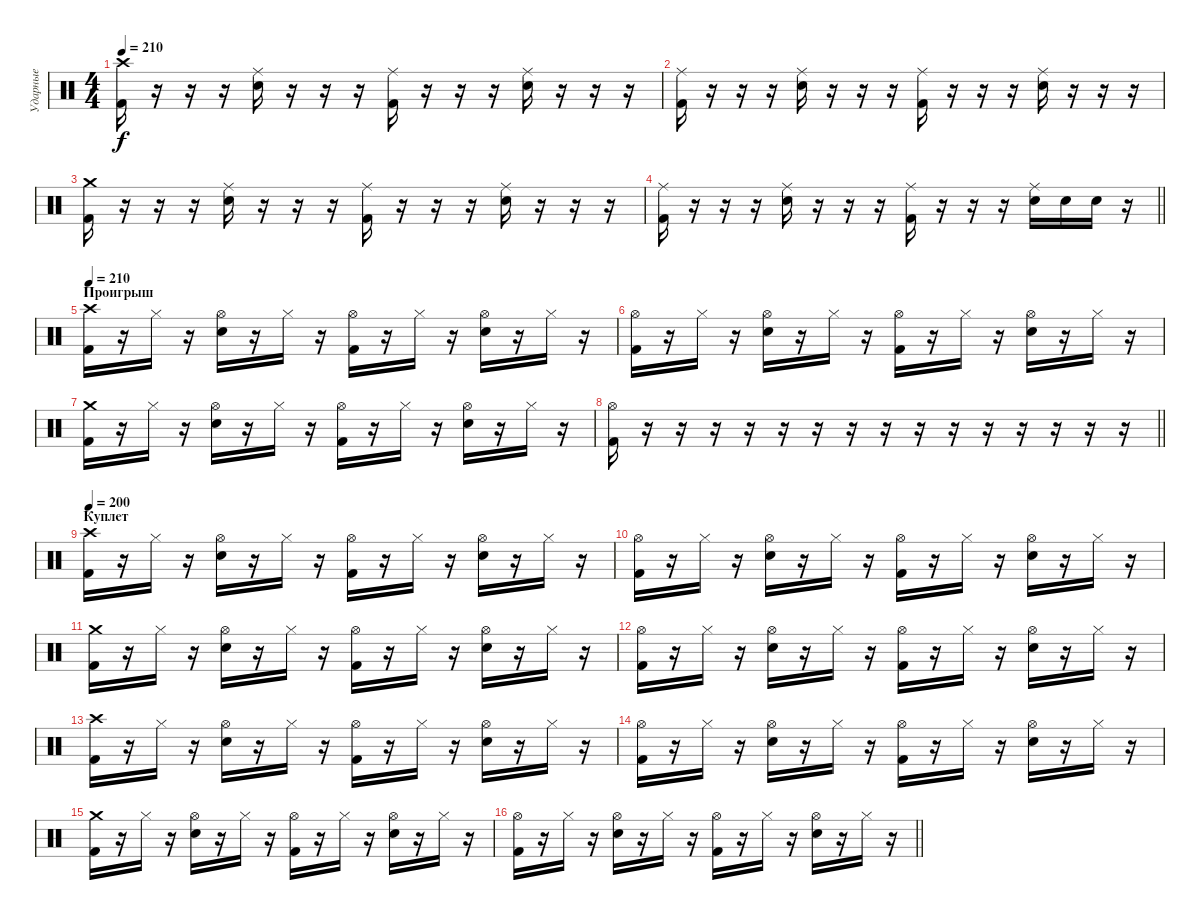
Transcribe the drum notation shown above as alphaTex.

\track ("Ударные" "Ударные") {instrument percussion}
\staff {score}
\articulation defaults
\ts (4 4)
\tempo 210
\clef neutral
\ks c
("Kick (hit) 2" "Crash high (hit)").16{dy f} r.16 r.16 r.16 ("Electric Snare (hit)" "Ride (middle)").16 r.16 r.16 r.16 ("Kick (hit) 2" "Ride (middle)").16 r.16 r.16 r.16 ("Electric Snare (hit)" "Ride (middle)").16 r.16 r.16 r.16 |
("Kick (hit) 2" "Ride (middle)").16 r.16 r.16 r.16 ("Electric Snare (hit)" "Ride (middle)").16 r.16 r.16 r.16 ("Kick (hit) 2" "Ride (middle)").16 r.16 r.16 r.16 ("Electric Snare (hit)" "Ride (middle)").16 r.16 r.16 r.16 |
("Kick (hit) 2" "Crash medium (hit)").16 r.16 r.16 r.16 ("Electric Snare (hit)" "Ride (middle)").16 r.16 r.16 r.16 ("Kick (hit) 2" "Ride (middle)").16 r.16 r.16 r.16 ("Electric Snare (hit)" "Ride (middle)").16 r.16 r.16 r.16 |
\barLineRight lightlight
("Kick (hit) 2" "Ride (middle)").16 r.16 r.16 r.16 ("Electric Snare (hit)" "Ride (middle)").16 r.16 r.16 r.16 ("Kick (hit) 2" "Ride (middle)").16 r.16 r.16 r.16 ("Electric Snare (hit)" "Ride (middle)").16 "Electric Snare (hit)".16 "Electric Snare (hit)".16 r.16 |
\section ("" "Проигрыш")
\tempo 210
("Kick (hit) 2" "Crash high (hit)").16 r.16 "Hi-Hat (closed)".16 r.16 ("Electric Snare (hit)" "Hi-Hat (open)").16 r.16 "Hi-Hat (closed)".16 r.16 ("Kick (hit) 2" "Hi-Hat (open)").16 r.16 "Hi-Hat (closed)".16 r.16 ("Electric Snare (hit)" "Hi-Hat (open)").16 r.16 "Hi-Hat (closed)".16 r.16 |
("Kick (hit) 2" "Hi-Hat (open)").16 r.16 "Hi-Hat (closed)".16 r.16 ("Electric Snare (hit)" "Hi-Hat (open)").16 r.16 "Hi-Hat (closed)".16 r.16 ("Kick (hit) 2" "Hi-Hat (open)").16 r.16 "Hi-Hat (closed)".16 r.16 ("Electric Snare (hit)" "Hi-Hat (open)").16 r.16 "Hi-Hat (closed)".16 r.16 |
("Kick (hit) 2" "Crash medium (hit)").16 r.16 "Hi-Hat (closed)".16 r.16 ("Electric Snare (hit)" "Hi-Hat (open)").16 r.16 "Hi-Hat (closed)".16 r.16 ("Kick (hit) 2" "Hi-Hat (open)").16 r.16 "Hi-Hat (closed)".16 r.16 ("Electric Snare (hit)" "Hi-Hat (open)").16 r.16 "Hi-Hat (closed)".16 r.16 |
\barLineRight lightlight
("Kick (hit) 2" "Hi-Hat (open)").16 r.16 r.16 r.16 r.16 r.16 r.16 r.16 r.16 r.16 r.16 r.16 r.16 r.16 r.16 r.16 |
\section ("" "Куплет")
\tempo 200
("Kick (hit) 2" "Crash high (hit)").16 r.16 "Hi-Hat (closed)".16 r.16 ("Electric Snare (hit)" "Hi-Hat (open)").16 r.16 "Hi-Hat (closed)".16 r.16 ("Kick (hit) 2" "Hi-Hat (open)").16 r.16 "Hi-Hat (closed)".16 r.16 ("Electric Snare (hit)" "Hi-Hat (open)").16 r.16 "Hi-Hat (closed)".16 r.16 |
("Kick (hit) 2" "Hi-Hat (open)").16 r.16 "Hi-Hat (closed)".16 r.16 ("Electric Snare (hit)" "Hi-Hat (open)").16 r.16 "Hi-Hat (closed)".16 r.16 ("Kick (hit) 2" "Hi-Hat (open)").16 r.16 "Hi-Hat (closed)".16 r.16 ("Electric Snare (hit)" "Hi-Hat (open)").16 r.16 "Hi-Hat (closed)".16 r.16 |
("Kick (hit) 2" "Crash medium (hit)").16 r.16 "Hi-Hat (closed)".16 r.16 ("Electric Snare (hit)" "Hi-Hat (open)").16 r.16 "Hi-Hat (closed)".16 r.16 ("Kick (hit) 2" "Hi-Hat (open)").16 r.16 "Hi-Hat (closed)".16 r.16 ("Electric Snare (hit)" "Hi-Hat (open)").16 r.16 "Hi-Hat (closed)".16 r.16 |
("Kick (hit) 2" "Hi-Hat (open)").16 r.16 "Hi-Hat (closed)".16 r.16 ("Electric Snare (hit)" "Hi-Hat (open)").16 r.16 "Hi-Hat (closed)".16 r.16 ("Kick (hit) 2" "Hi-Hat (open)").16 r.16 "Hi-Hat (closed)".16 r.16 ("Electric Snare (hit)" "Hi-Hat (open)").16 r.16 "Hi-Hat (closed)".16 r.16 |
("Kick (hit) 2" "Crash high (hit)").16 r.16 "Hi-Hat (closed)".16 r.16 ("Electric Snare (hit)" "Hi-Hat (open)").16 r.16 "Hi-Hat (closed)".16 r.16 ("Kick (hit) 2" "Hi-Hat (open)").16 r.16 "Hi-Hat (closed)".16 r.16 ("Electric Snare (hit)" "Hi-Hat (open)").16 r.16 "Hi-Hat (closed)".16 r.16 |
("Kick (hit) 2" "Hi-Hat (open)").16 r.16 "Hi-Hat (closed)".16 r.16 ("Electric Snare (hit)" "Hi-Hat (open)").16 r.16 "Hi-Hat (closed)".16 r.16 ("Kick (hit) 2" "Hi-Hat (open)").16 r.16 "Hi-Hat (closed)".16 r.16 ("Electric Snare (hit)" "Hi-Hat (open)").16 r.16 "Hi-Hat (closed)".16 r.16 |
("Kick (hit) 2" "Crash medium (hit)").16 r.16 "Hi-Hat (closed)".16 r.16 ("Electric Snare (hit)" "Hi-Hat (open)").16 r.16 "Hi-Hat (closed)".16 r.16 ("Kick (hit) 2" "Hi-Hat (open)").16 r.16 "Hi-Hat (closed)".16 r.16 ("Electric Snare (hit)" "Hi-Hat (open)").16 r.16 "Hi-Hat (closed)".16 r.16 |
\barLineRight lightlight
("Kick (hit) 2" "Hi-Hat (open)").16 r.16 "Hi-Hat (closed)".16 r.16 ("Electric Snare (hit)" "Hi-Hat (open)").16 r.16 "Hi-Hat (closed)".16 r.16 ("Kick (hit) 2" "Hi-Hat (open)").16 r.16 "Hi-Hat (closed)".16 r.16 ("Electric Snare (hit)" "Hi-Hat (open)").16 r.16 "Hi-Hat (closed)".16 r.16
